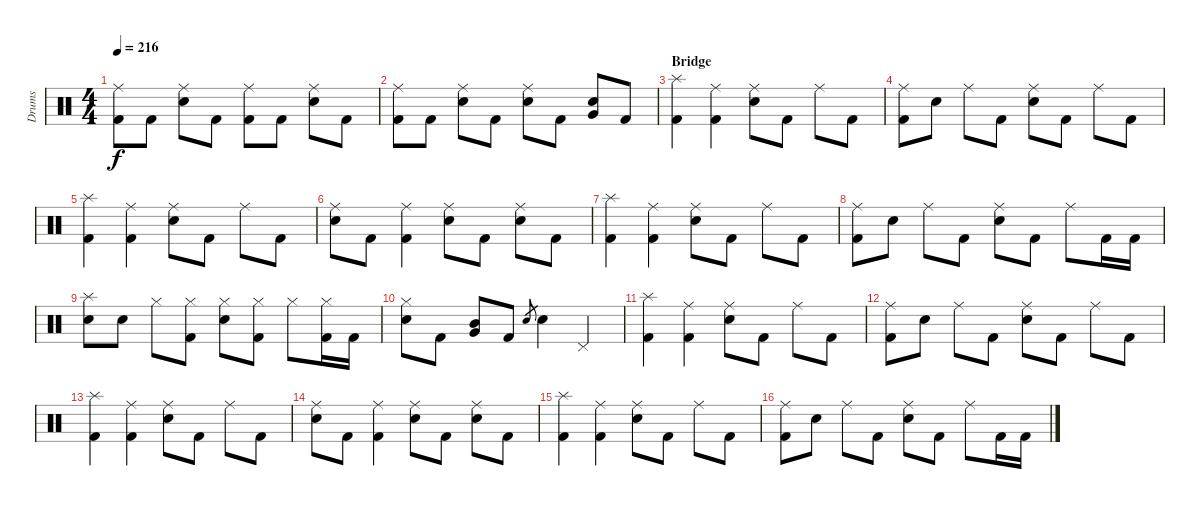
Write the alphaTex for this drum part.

\track ("Drums" "Drums") {instrument percussion}
\staff {score}
\articulation defaults
\ts (4 4)
\tempo 216
\clef neutral
\ks c
("Ride (middle)" "Kick (hit) 2").8{dy f} "Kick (hit) 2".8 ("Ride (middle)" "Electric Snare (hit)").8 "Kick (hit) 2".8 ("Ride (middle)" "Kick (hit) 2").8 "Kick (hit) 2".8 ("Ride (middle)" "Electric Snare (hit)").8 "Kick (hit) 2".8 |
("Ride (middle)" "Kick (hit) 2").8 "Kick (hit) 2".8 ("Ride (middle)" "Electric Snare (hit)").8 "Kick (hit) 2".8 ("Ride (middle)" "Electric Snare (hit)").8 "Kick (hit) 2".8 ("Very Low Tom (hit)" "Electric Snare (hit)").8 "Kick (hit) 2".8 |
\section ("" "Bridge")
("Splash (hit)" "Kick (hit) 2").4 ("Ride (middle)" "Kick (hit) 2").4 ("Ride (middle)" "Electric Snare (hit)").8 "Kick (hit) 2".8 "Ride (middle)".8 "Kick (hit) 2".8 |
("Ride (middle)" "Kick (hit) 2").8 "Electric Snare (hit)".8 "Ride (middle)".8 "Kick (hit) 2".8 ("Ride (middle)" "Electric Snare (hit)").8 "Kick (hit) 2".8 "Ride (middle)".8 "Kick (hit) 2".8 |
("Splash (hit)" "Kick (hit) 2").4 ("Ride (middle)" "Kick (hit) 2").4 ("Ride (middle)" "Electric Snare (hit)").8 "Kick (hit) 2".8 "Ride (middle)".8 "Kick (hit) 2".8 |
("Ride (middle)" "Electric Snare (hit)").8 "Kick (hit) 2".8 ("Ride (middle)" "Kick (hit) 2").4 ("Ride (middle)" "Electric Snare (hit)").8 "Kick (hit) 2".8 ("Ride (middle)" "Electric Snare (hit)").8 "Kick (hit) 2".8 |
("Splash (hit)" "Kick (hit) 2").4 ("Ride (middle)" "Kick (hit) 2").4 ("Ride (middle)" "Electric Snare (hit)").8 "Kick (hit) 2".8 "Ride (middle)".8 "Kick (hit) 2".8 |
("Ride (middle)" "Kick (hit) 2").8 "Electric Snare (hit)".8 "Ride (middle)".8 "Kick (hit) 2".8 ("Ride (middle)" "Electric Snare (hit)").8 "Kick (hit) 2".8 "Ride (middle)".8 "Kick (hit) 2".16 "Kick (hit) 2".16 |
("Splash (hit)" "Electric Snare (hit)").8 "Electric Snare (hit)".8 "Hi-Hat (closed)".8 ("Hi-Hat (closed)" "Kick (hit) 2").8 ("Hi-Hat (closed)" "Electric Snare (hit)").8 ("Hi-Hat (closed)" "Kick (hit) 2").8 "Hi-Hat (closed)".8 ("Hi-Hat (closed)" "Kick (hit) 2").16 "Kick (hit) 2".16 |
("Hi-Hat (closed)" "Electric Snare (hit)").8 "Kick (hit) 2".8 ("Mid Tom (hit)" "Very Low Tom (hit)").8 "Kick (hit) 2".8 "Electric Snare (hit)".8{gr} "Electric Snare (hit)".4 "Pedal Hi-Hat (hit)".4 |
("Splash (hit)" "Kick (hit) 2").4 ("Ride (middle)" "Kick (hit) 2").4 ("Ride (middle)" "Electric Snare (hit)").8 "Kick (hit) 2".8 "Ride (middle)".8 "Kick (hit) 2".8 |
("Ride (middle)" "Kick (hit) 2").8 "Electric Snare (hit)".8 "Ride (middle)".8 "Kick (hit) 2".8 ("Ride (middle)" "Electric Snare (hit)").8 "Kick (hit) 2".8 "Ride (middle)".8 "Kick (hit) 2".8 |
("Splash (hit)" "Kick (hit) 2").4 ("Ride (middle)" "Kick (hit) 2").4 ("Ride (middle)" "Electric Snare (hit)").8 "Kick (hit) 2".8 "Ride (middle)".8 "Kick (hit) 2".8 |
("Ride (middle)" "Electric Snare (hit)").8 "Kick (hit) 2".8 ("Ride (middle)" "Kick (hit) 2").4 ("Ride (middle)" "Electric Snare (hit)").8 "Kick (hit) 2".8 ("Ride (middle)" "Electric Snare (hit)").8 "Kick (hit) 2".8 |
("Splash (hit)" "Kick (hit) 2").4 ("Ride (middle)" "Kick (hit) 2").4 ("Ride (middle)" "Electric Snare (hit)").8 "Kick (hit) 2".8 "Ride (middle)".8 "Kick (hit) 2".8 |
("Ride (middle)" "Kick (hit) 2").8 "Electric Snare (hit)".8 "Ride (middle)".8 "Kick (hit) 2".8 ("Ride (middle)" "Electric Snare (hit)").8 "Kick (hit) 2".8 "Ride (middle)".8 "Kick (hit) 2".16 "Kick (hit) 2".16
